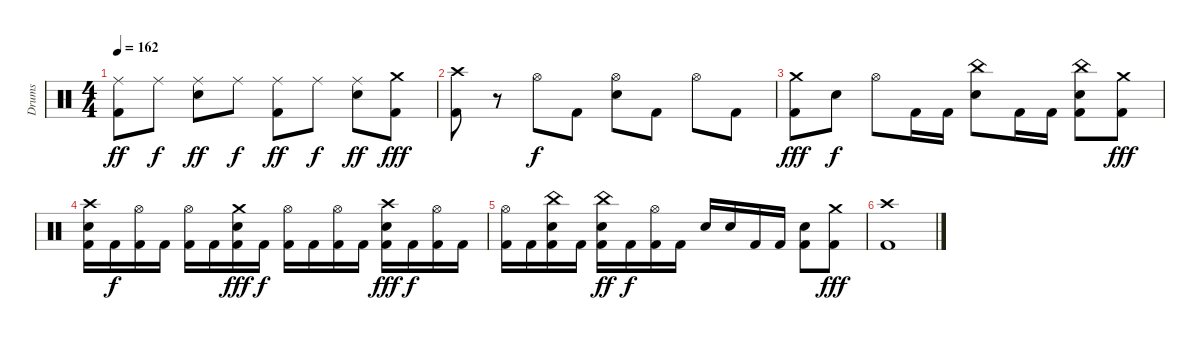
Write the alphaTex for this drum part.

\track ("Drums" "Drums") {instrument percussion}
\staff {score}
\articulation defaults
\ts (4 4)
\tempo 162
\clef neutral
\ks c
("Ride (middle)" "Kick (hit) 2").8{dy ff} "Ride (middle)".8{dy f} ("Ride (middle)" "Snare (hit) 2").8{dy ff} "Ride (middle)".8{dy f} ("Ride (middle)" "Kick (hit) 2").8{dy ff} "Ride (middle)".8{dy f} ("Ride (middle)" "Snare (hit) 2").8{dy ff} ("Crash medium (hit)" "Kick (hit) 2").8{dy fff} |
("Crash high (hit)" "Kick (hit) 2").8 r.8 "Hi-Hat (open)".8{dy f} "Kick (hit) 2".8 ("Hi-Hat (open)" "Snare (hit) 2").8 "Kick (hit) 2".8 "Hi-Hat (open)".8 "Kick (hit) 2".8 |
("Crash medium (hit)" "Kick (hit) 2").8{dy fff} "Snare (hit) 2".8{dy f} "Hi-Hat (open)".8 "Kick (hit) 2".16 "Kick (hit) 2".16 ("China (hit)" "Snare (hit) 2").8 "Kick (hit) 2".16 "Kick (hit) 2".16 ("China (hit)" "Snare (hit) 2" "Kick (hit) 2").8 ("Crash medium (hit)" "Kick (hit) 2").8{dy fff} |
("Crash high (hit)" "Snare (hit) 2" "Kick (hit) 2").16 "Kick (hit) 2".16{dy f} ("Hi-Hat (open)" "Kick (hit) 2").16 "Kick (hit) 2".16 ("Hi-Hat (open)" "Kick (hit) 2").16 "Kick (hit) 2".16 ("Crash medium (hit)" "Snare (hit) 2" "Kick (hit) 2").16{dy fff} "Kick (hit) 2".16{dy f} ("Hi-Hat (open)" "Kick (hit) 2").16 "Kick (hit) 2".16 ("Hi-Hat (open)" "Kick (hit) 2").16 "Kick (hit) 2".16 ("Crash high (hit)" "Snare (hit) 2" "Kick (hit) 2").16{dy fff} "Kick (hit) 2".16{dy f} ("Hi-Hat (open)" "Kick (hit) 2").16 "Kick (hit) 2".16 |
("Hi-Hat (open)" "Kick (hit) 2").16 "Kick (hit) 2".16 ("China (hit)" "Snare (hit) 2" "Kick (hit) 2").16 "Kick (hit) 2".16 ("China (hit)" "Snare (hit) 2" "Kick (hit) 2").16{dy ff} "Kick (hit) 2".16{dy f} ("Hi-Hat (open)" "Kick (hit) 2").16 "Kick (hit) 2".16 "Snare (hit) 2".16 "Snare (hit) 2".16 "Kick (hit) 2".16 "Kick (hit) 2".16 ("Snare (hit) 2" "Kick (hit) 2").8 ("Crash medium (hit)" "Kick (hit) 2").8{dy fff} |
("Crash high (hit)" "Kick (hit) 2").1
